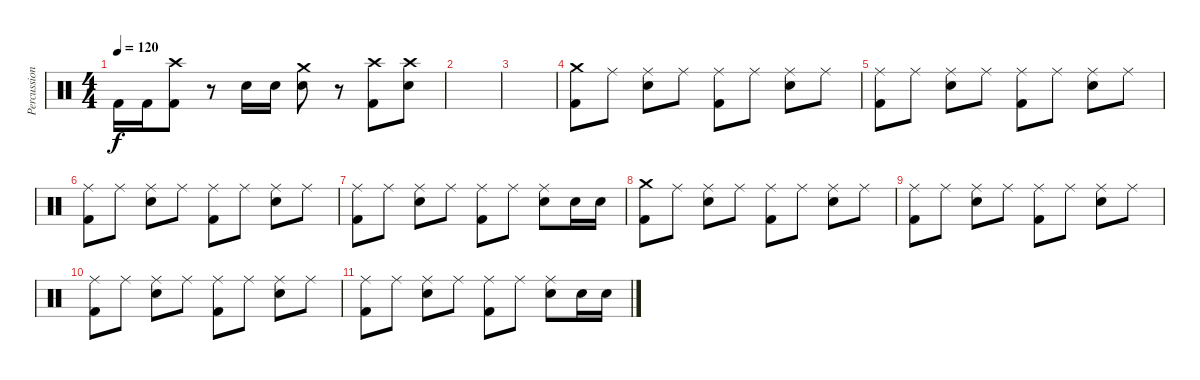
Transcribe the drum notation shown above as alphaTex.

\track ("Percussions" "Percussion") {instrument percussion}
\staff {score}
\articulation defaults
\ts (4 4)
\tempo 120
\clef neutral
\ks c "Kick (hit) 2".16{dy f} "Kick (hit) 2".16
("Crash high (hit)" "Kick (hit) 2").8 r.8 "Electric Snare (hit)".16 "Electric Snare (hit)".16 ("Crash medium (hit)" "Electric Snare (hit)").8 r.8 ("Crash high (hit)" "Kick (hit) 2").8 ("Crash high (hit)" "Electric Snare (hit)").8 |
|
|
("Crash medium (hit)" "Kick (hit) 2").8 "Ride (middle)".8 ("Ride (middle)" "Electric Snare (hit)").8 "Ride (middle)".8 ("Ride (middle)" "Kick (hit) 2").8 "Ride (middle)".8 ("Ride (middle)" "Electric Snare (hit)").8 "Ride (middle)".8 |
("Ride (middle)" "Kick (hit) 2").8 "Ride (middle)".8 ("Ride (middle)" "Electric Snare (hit)").8 "Ride (middle)".8 ("Ride (middle)" "Kick (hit) 2").8 "Ride (middle)".8 ("Ride (middle)" "Electric Snare (hit)").8 "Ride (middle)".8 |
("Ride (middle)" "Kick (hit) 2").8 "Ride (middle)".8 ("Ride (middle)" "Electric Snare (hit)").8 "Ride (middle)".8 ("Ride (middle)" "Kick (hit) 2").8 "Ride (middle)".8 ("Ride (middle)" "Electric Snare (hit)").8 "Ride (middle)".8 |
("Ride (middle)" "Kick (hit) 2").8 "Ride (middle)".8 ("Ride (middle)" "Electric Snare (hit)").8 "Ride (middle)".8 ("Ride (middle)" "Kick (hit) 2").8 "Ride (middle)".8 ("Ride (middle)" "Electric Snare (hit)").8 "Electric Snare (hit)".16 "Electric Snare (hit)".16 |
("Crash medium (hit)" "Kick (hit) 2").8 "Ride (middle)".8 ("Ride (middle)" "Electric Snare (hit)").8 "Ride (middle)".8 ("Ride (middle)" "Kick (hit) 2").8 "Ride (middle)".8 ("Ride (middle)" "Electric Snare (hit)").8 "Ride (middle)".8 |
("Ride (middle)" "Kick (hit) 2").8 "Ride (middle)".8 ("Ride (middle)" "Electric Snare (hit)").8 "Ride (middle)".8 ("Ride (middle)" "Kick (hit) 2").8 "Ride (middle)".8 ("Ride (middle)" "Electric Snare (hit)").8 "Ride (middle)".8 |
("Ride (middle)" "Kick (hit) 2").8 "Ride (middle)".8 ("Ride (middle)" "Electric Snare (hit)").8 "Ride (middle)".8 ("Ride (middle)" "Kick (hit) 2").8 "Ride (middle)".8 ("Ride (middle)" "Electric Snare (hit)").8 "Ride (middle)".8 |
("Ride (middle)" "Kick (hit) 2").8 "Ride (middle)".8 ("Ride (middle)" "Electric Snare (hit)").8 "Ride (middle)".8 ("Ride (middle)" "Kick (hit) 2").8 "Ride (middle)".8 ("Ride (middle)" "Electric Snare (hit)").8 "Electric Snare (hit)".16 "Electric Snare (hit)".16
